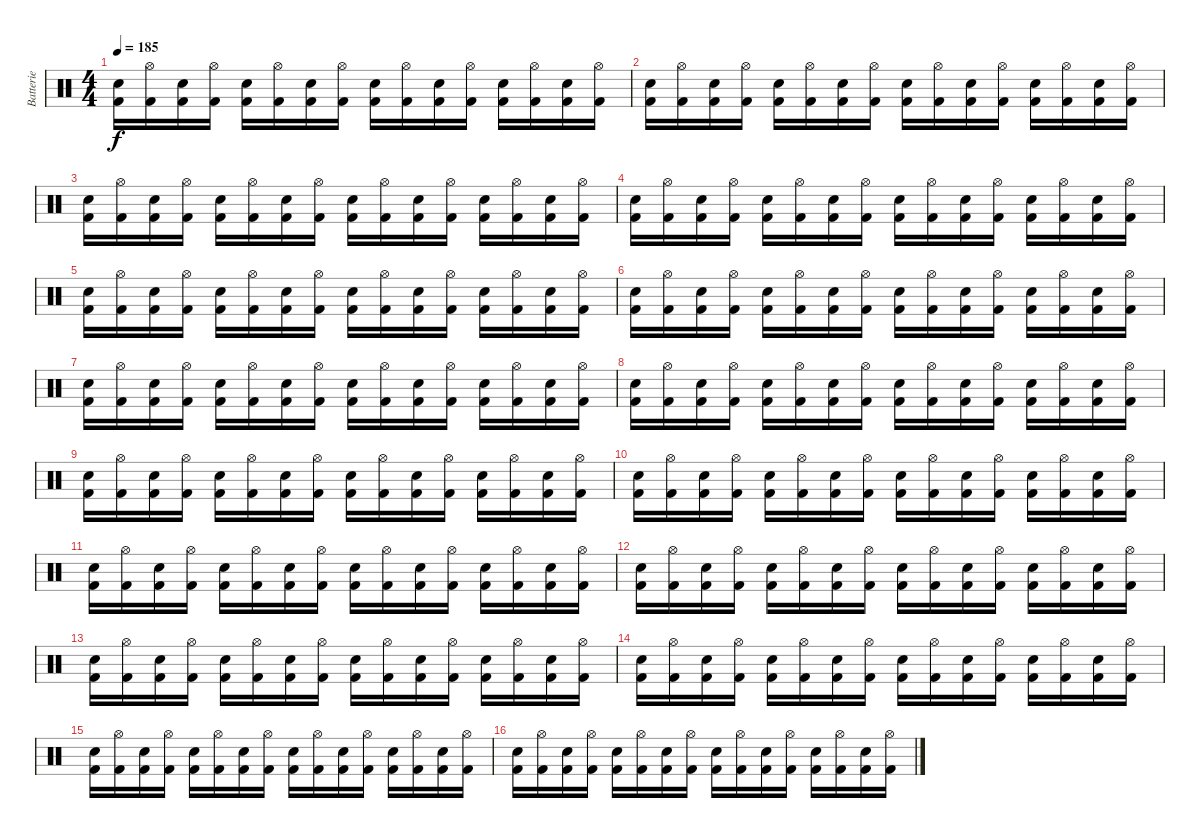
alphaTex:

\track ("Batterie" "Batterie") {instrument percussion}
\staff {score}
\articulation defaults
\ts (4 4)
\tempo 185
\clef neutral
\ks c
("Electric Snare (hit)" "Kick (hit) 2").16{dy f} ("Hi-Hat (open)" "Kick (hit) 2").16 ("Electric Snare (hit)" "Kick (hit) 2").16 ("Hi-Hat (open)" "Kick (hit) 2").16 ("Electric Snare (hit)" "Kick (hit) 2").16 ("Hi-Hat (open)" "Kick (hit) 2").16 ("Electric Snare (hit)" "Kick (hit) 2").16 ("Hi-Hat (open)" "Kick (hit) 2").16 ("Electric Snare (hit)" "Kick (hit) 2").16 ("Hi-Hat (open)" "Kick (hit) 2").16 ("Electric Snare (hit)" "Kick (hit) 2").16 ("Hi-Hat (open)" "Kick (hit) 2").16 ("Electric Snare (hit)" "Kick (hit) 2").16 ("Hi-Hat (open)" "Kick (hit) 2").16 ("Electric Snare (hit)" "Kick (hit) 2").16 ("Hi-Hat (open)" "Kick (hit) 2").16 |
("Electric Snare (hit)" "Kick (hit) 2").16 ("Hi-Hat (open)" "Kick (hit) 2").16 ("Electric Snare (hit)" "Kick (hit) 2").16 ("Hi-Hat (open)" "Kick (hit) 2").16 ("Electric Snare (hit)" "Kick (hit) 2").16 ("Hi-Hat (open)" "Kick (hit) 2").16 ("Electric Snare (hit)" "Kick (hit) 2").16 ("Hi-Hat (open)" "Kick (hit) 2").16 ("Electric Snare (hit)" "Kick (hit) 2").16 ("Hi-Hat (open)" "Kick (hit) 2").16 ("Electric Snare (hit)" "Kick (hit) 2").16 ("Hi-Hat (open)" "Kick (hit) 2").16 ("Electric Snare (hit)" "Kick (hit) 2").16 ("Hi-Hat (open)" "Kick (hit) 2").16 ("Electric Snare (hit)" "Kick (hit) 2").16 ("Hi-Hat (open)" "Kick (hit) 2").16 |
("Electric Snare (hit)" "Kick (hit) 2").16 ("Hi-Hat (open)" "Kick (hit) 2").16 ("Electric Snare (hit)" "Kick (hit) 2").16 ("Hi-Hat (open)" "Kick (hit) 2").16 ("Electric Snare (hit)" "Kick (hit) 2").16 ("Hi-Hat (open)" "Kick (hit) 2").16 ("Electric Snare (hit)" "Kick (hit) 2").16 ("Hi-Hat (open)" "Kick (hit) 2").16 ("Electric Snare (hit)" "Kick (hit) 2").16 ("Hi-Hat (open)" "Kick (hit) 2").16 ("Electric Snare (hit)" "Kick (hit) 2").16 ("Hi-Hat (open)" "Kick (hit) 2").16 ("Electric Snare (hit)" "Kick (hit) 2").16 ("Hi-Hat (open)" "Kick (hit) 2").16 ("Electric Snare (hit)" "Kick (hit) 2").16 ("Hi-Hat (open)" "Kick (hit) 2").16 |
("Electric Snare (hit)" "Kick (hit) 2").16 ("Hi-Hat (open)" "Kick (hit) 2").16 ("Electric Snare (hit)" "Kick (hit) 2").16 ("Hi-Hat (open)" "Kick (hit) 2").16 ("Electric Snare (hit)" "Kick (hit) 2").16 ("Hi-Hat (open)" "Kick (hit) 2").16 ("Electric Snare (hit)" "Kick (hit) 2").16 ("Hi-Hat (open)" "Kick (hit) 2").16 ("Electric Snare (hit)" "Kick (hit) 2").16 ("Hi-Hat (open)" "Kick (hit) 2").16 ("Electric Snare (hit)" "Kick (hit) 2").16 ("Hi-Hat (open)" "Kick (hit) 2").16 ("Electric Snare (hit)" "Kick (hit) 2").16 ("Hi-Hat (open)" "Kick (hit) 2").16 ("Electric Snare (hit)" "Kick (hit) 2").16 ("Hi-Hat (open)" "Kick (hit) 2").16 |
("Electric Snare (hit)" "Kick (hit) 2").16 ("Hi-Hat (open)" "Kick (hit) 2").16 ("Electric Snare (hit)" "Kick (hit) 2").16 ("Hi-Hat (open)" "Kick (hit) 2").16 ("Electric Snare (hit)" "Kick (hit) 2").16 ("Hi-Hat (open)" "Kick (hit) 2").16 ("Electric Snare (hit)" "Kick (hit) 2").16 ("Hi-Hat (open)" "Kick (hit) 2").16 ("Electric Snare (hit)" "Kick (hit) 2").16 ("Hi-Hat (open)" "Kick (hit) 2").16 ("Electric Snare (hit)" "Kick (hit) 2").16 ("Hi-Hat (open)" "Kick (hit) 2").16 ("Electric Snare (hit)" "Kick (hit) 2").16 ("Hi-Hat (open)" "Kick (hit) 2").16 ("Electric Snare (hit)" "Kick (hit) 2").16 ("Hi-Hat (open)" "Kick (hit) 2").16 |
("Electric Snare (hit)" "Kick (hit) 2").16 ("Hi-Hat (open)" "Kick (hit) 2").16 ("Electric Snare (hit)" "Kick (hit) 2").16 ("Hi-Hat (open)" "Kick (hit) 2").16 ("Electric Snare (hit)" "Kick (hit) 2").16 ("Hi-Hat (open)" "Kick (hit) 2").16 ("Electric Snare (hit)" "Kick (hit) 2").16 ("Hi-Hat (open)" "Kick (hit) 2").16 ("Electric Snare (hit)" "Kick (hit) 2").16 ("Hi-Hat (open)" "Kick (hit) 2").16 ("Electric Snare (hit)" "Kick (hit) 2").16 ("Hi-Hat (open)" "Kick (hit) 2").16 ("Electric Snare (hit)" "Kick (hit) 2").16 ("Hi-Hat (open)" "Kick (hit) 2").16 ("Electric Snare (hit)" "Kick (hit) 2").16 ("Hi-Hat (open)" "Kick (hit) 2").16 |
("Electric Snare (hit)" "Kick (hit) 2").16 ("Hi-Hat (open)" "Kick (hit) 2").16 ("Electric Snare (hit)" "Kick (hit) 2").16 ("Hi-Hat (open)" "Kick (hit) 2").16 ("Electric Snare (hit)" "Kick (hit) 2").16 ("Hi-Hat (open)" "Kick (hit) 2").16 ("Electric Snare (hit)" "Kick (hit) 2").16 ("Hi-Hat (open)" "Kick (hit) 2").16 ("Electric Snare (hit)" "Kick (hit) 2").16 ("Hi-Hat (open)" "Kick (hit) 2").16 ("Electric Snare (hit)" "Kick (hit) 2").16 ("Hi-Hat (open)" "Kick (hit) 2").16 ("Electric Snare (hit)" "Kick (hit) 2").16 ("Hi-Hat (open)" "Kick (hit) 2").16 ("Electric Snare (hit)" "Kick (hit) 2").16 ("Hi-Hat (open)" "Kick (hit) 2").16 |
("Electric Snare (hit)" "Kick (hit) 2").16 ("Hi-Hat (open)" "Kick (hit) 2").16 ("Electric Snare (hit)" "Kick (hit) 2").16 ("Hi-Hat (open)" "Kick (hit) 2").16 ("Electric Snare (hit)" "Kick (hit) 2").16 ("Hi-Hat (open)" "Kick (hit) 2").16 ("Electric Snare (hit)" "Kick (hit) 2").16 ("Hi-Hat (open)" "Kick (hit) 2").16 ("Electric Snare (hit)" "Kick (hit) 2").16 ("Hi-Hat (open)" "Kick (hit) 2").16 ("Electric Snare (hit)" "Kick (hit) 2").16 ("Hi-Hat (open)" "Kick (hit) 2").16 ("Electric Snare (hit)" "Kick (hit) 2").16 ("Hi-Hat (open)" "Kick (hit) 2").16 ("Electric Snare (hit)" "Kick (hit) 2").16 ("Hi-Hat (open)" "Kick (hit) 2").16 |
("Electric Snare (hit)" "Kick (hit) 2").16 ("Hi-Hat (open)" "Kick (hit) 2").16 ("Electric Snare (hit)" "Kick (hit) 2").16 ("Hi-Hat (open)" "Kick (hit) 2").16 ("Electric Snare (hit)" "Kick (hit) 2").16 ("Hi-Hat (open)" "Kick (hit) 2").16 ("Electric Snare (hit)" "Kick (hit) 2").16 ("Hi-Hat (open)" "Kick (hit) 2").16 ("Electric Snare (hit)" "Kick (hit) 2").16 ("Hi-Hat (open)" "Kick (hit) 2").16 ("Electric Snare (hit)" "Kick (hit) 2").16 ("Hi-Hat (open)" "Kick (hit) 2").16 ("Electric Snare (hit)" "Kick (hit) 2").16 ("Hi-Hat (open)" "Kick (hit) 2").16 ("Electric Snare (hit)" "Kick (hit) 2").16 ("Hi-Hat (open)" "Kick (hit) 2").16 |
("Electric Snare (hit)" "Kick (hit) 2").16 ("Hi-Hat (open)" "Kick (hit) 2").16 ("Electric Snare (hit)" "Kick (hit) 2").16 ("Hi-Hat (open)" "Kick (hit) 2").16 ("Electric Snare (hit)" "Kick (hit) 2").16 ("Hi-Hat (open)" "Kick (hit) 2").16 ("Electric Snare (hit)" "Kick (hit) 2").16 ("Hi-Hat (open)" "Kick (hit) 2").16 ("Electric Snare (hit)" "Kick (hit) 2").16 ("Hi-Hat (open)" "Kick (hit) 2").16 ("Electric Snare (hit)" "Kick (hit) 2").16 ("Hi-Hat (open)" "Kick (hit) 2").16 ("Electric Snare (hit)" "Kick (hit) 2").16 ("Hi-Hat (open)" "Kick (hit) 2").16 ("Electric Snare (hit)" "Kick (hit) 2").16 ("Hi-Hat (open)" "Kick (hit) 2").16 |
("Electric Snare (hit)" "Kick (hit) 2").16 ("Hi-Hat (open)" "Kick (hit) 2").16 ("Electric Snare (hit)" "Kick (hit) 2").16 ("Hi-Hat (open)" "Kick (hit) 2").16 ("Electric Snare (hit)" "Kick (hit) 2").16 ("Hi-Hat (open)" "Kick (hit) 2").16 ("Electric Snare (hit)" "Kick (hit) 2").16 ("Hi-Hat (open)" "Kick (hit) 2").16 ("Electric Snare (hit)" "Kick (hit) 2").16 ("Hi-Hat (open)" "Kick (hit) 2").16 ("Electric Snare (hit)" "Kick (hit) 2").16 ("Hi-Hat (open)" "Kick (hit) 2").16 ("Electric Snare (hit)" "Kick (hit) 2").16 ("Hi-Hat (open)" "Kick (hit) 2").16 ("Electric Snare (hit)" "Kick (hit) 2").16 ("Hi-Hat (open)" "Kick (hit) 2").16 |
("Electric Snare (hit)" "Kick (hit) 2").16 ("Hi-Hat (open)" "Kick (hit) 2").16 ("Electric Snare (hit)" "Kick (hit) 2").16 ("Hi-Hat (open)" "Kick (hit) 2").16 ("Electric Snare (hit)" "Kick (hit) 2").16 ("Hi-Hat (open)" "Kick (hit) 2").16 ("Electric Snare (hit)" "Kick (hit) 2").16 ("Hi-Hat (open)" "Kick (hit) 2").16 ("Electric Snare (hit)" "Kick (hit) 2").16 ("Hi-Hat (open)" "Kick (hit) 2").16 ("Electric Snare (hit)" "Kick (hit) 2").16 ("Hi-Hat (open)" "Kick (hit) 2").16 ("Electric Snare (hit)" "Kick (hit) 2").16 ("Hi-Hat (open)" "Kick (hit) 2").16 ("Electric Snare (hit)" "Kick (hit) 2").16 ("Hi-Hat (open)" "Kick (hit) 2").16 |
("Electric Snare (hit)" "Kick (hit) 2").16 ("Hi-Hat (open)" "Kick (hit) 2").16 ("Electric Snare (hit)" "Kick (hit) 2").16 ("Hi-Hat (open)" "Kick (hit) 2").16 ("Electric Snare (hit)" "Kick (hit) 2").16 ("Hi-Hat (open)" "Kick (hit) 2").16 ("Electric Snare (hit)" "Kick (hit) 2").16 ("Hi-Hat (open)" "Kick (hit) 2").16 ("Electric Snare (hit)" "Kick (hit) 2").16 ("Hi-Hat (open)" "Kick (hit) 2").16 ("Electric Snare (hit)" "Kick (hit) 2").16 ("Hi-Hat (open)" "Kick (hit) 2").16 ("Electric Snare (hit)" "Kick (hit) 2").16 ("Hi-Hat (open)" "Kick (hit) 2").16 ("Electric Snare (hit)" "Kick (hit) 2").16 ("Hi-Hat (open)" "Kick (hit) 2").16 |
("Electric Snare (hit)" "Kick (hit) 2").16 ("Hi-Hat (open)" "Kick (hit) 2").16 ("Electric Snare (hit)" "Kick (hit) 2").16 ("Hi-Hat (open)" "Kick (hit) 2").16 ("Electric Snare (hit)" "Kick (hit) 2").16 ("Hi-Hat (open)" "Kick (hit) 2").16 ("Electric Snare (hit)" "Kick (hit) 2").16 ("Hi-Hat (open)" "Kick (hit) 2").16 ("Electric Snare (hit)" "Kick (hit) 2").16 ("Hi-Hat (open)" "Kick (hit) 2").16 ("Electric Snare (hit)" "Kick (hit) 2").16 ("Hi-Hat (open)" "Kick (hit) 2").16 ("Electric Snare (hit)" "Kick (hit) 2").16 ("Hi-Hat (open)" "Kick (hit) 2").16 ("Electric Snare (hit)" "Kick (hit) 2").16 ("Hi-Hat (open)" "Kick (hit) 2").16 |
("Electric Snare (hit)" "Kick (hit) 2").16 ("Hi-Hat (open)" "Kick (hit) 2").16 ("Electric Snare (hit)" "Kick (hit) 2").16 ("Hi-Hat (open)" "Kick (hit) 2").16 ("Electric Snare (hit)" "Kick (hit) 2").16 ("Hi-Hat (open)" "Kick (hit) 2").16 ("Electric Snare (hit)" "Kick (hit) 2").16 ("Hi-Hat (open)" "Kick (hit) 2").16 ("Electric Snare (hit)" "Kick (hit) 2").16 ("Hi-Hat (open)" "Kick (hit) 2").16 ("Electric Snare (hit)" "Kick (hit) 2").16 ("Hi-Hat (open)" "Kick (hit) 2").16 ("Electric Snare (hit)" "Kick (hit) 2").16 ("Hi-Hat (open)" "Kick (hit) 2").16 ("Electric Snare (hit)" "Kick (hit) 2").16 ("Hi-Hat (open)" "Kick (hit) 2").16 |
("Electric Snare (hit)" "Kick (hit) 2").16 ("Hi-Hat (open)" "Kick (hit) 2").16 ("Electric Snare (hit)" "Kick (hit) 2").16 ("Hi-Hat (open)" "Kick (hit) 2").16 ("Electric Snare (hit)" "Kick (hit) 2").16 ("Hi-Hat (open)" "Kick (hit) 2").16 ("Electric Snare (hit)" "Kick (hit) 2").16 ("Hi-Hat (open)" "Kick (hit) 2").16 ("Electric Snare (hit)" "Kick (hit) 2").16 ("Hi-Hat (open)" "Kick (hit) 2").16 ("Electric Snare (hit)" "Kick (hit) 2").16 ("Hi-Hat (open)" "Kick (hit) 2").16 ("Electric Snare (hit)" "Kick (hit) 2").16 ("Hi-Hat (open)" "Kick (hit) 2").16 ("Electric Snare (hit)" "Kick (hit) 2").16 ("Hi-Hat (open)" "Kick (hit) 2").16
